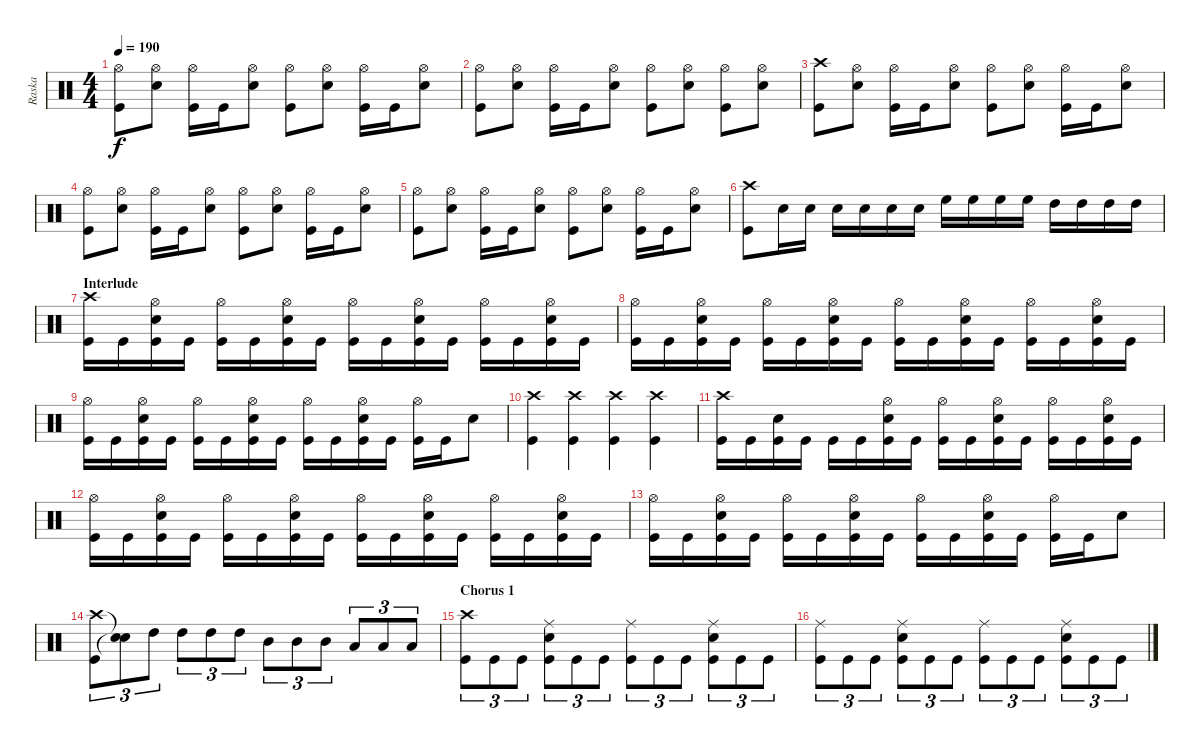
\track ("Raska" "Raska") {instrument percussion}
\staff {score}
\articulation defaults
\ts (4 4)
\tempo 190
\clef neutral
\ks c
("Hi-Hat (open)" "Kick (hit)").8{dy f} ("Hi-Hat (open)" "Electric Snare (hit)").8 ("Hi-Hat (open)" "Kick (hit)").16 "Kick (hit)".16 ("Hi-Hat (open)" "Electric Snare (hit)").8 ("Hi-Hat (open)" "Kick (hit)").8 ("Hi-Hat (open)" "Electric Snare (hit)").8 ("Hi-Hat (open)" "Kick (hit)").16 "Kick (hit)".16 ("Hi-Hat (open)" "Electric Snare (hit)").8 |
("Hi-Hat (open)" "Kick (hit)").8 ("Hi-Hat (open)" "Electric Snare (hit)").8 ("Hi-Hat (open)" "Kick (hit)").16 "Kick (hit)".16 ("Hi-Hat (open)" "Electric Snare (hit)").8 ("Hi-Hat (open)" "Kick (hit)").8 ("Hi-Hat (open)" "Electric Snare (hit)").8 ("Hi-Hat (open)" "Kick (hit)").8 ("Hi-Hat (open)" "Electric Snare (hit)").8 |
("Crash high (hit)" "Kick (hit)").8 ("Hi-Hat (open)" "Electric Snare (hit)").8 ("Hi-Hat (open)" "Kick (hit)").16 "Kick (hit)".16 ("Hi-Hat (open)" "Electric Snare (hit)").8 ("Hi-Hat (open)" "Kick (hit)").8 ("Hi-Hat (open)" "Electric Snare (hit)").8 ("Hi-Hat (open)" "Kick (hit)").16 "Kick (hit)".16 ("Hi-Hat (open)" "Electric Snare (hit)").8 |
("Hi-Hat (open)" "Kick (hit)").8 ("Hi-Hat (open)" "Electric Snare (hit)").8 ("Hi-Hat (open)" "Kick (hit)").16 "Kick (hit)".16 ("Hi-Hat (open)" "Electric Snare (hit)").8 ("Hi-Hat (open)" "Kick (hit)").8 ("Hi-Hat (open)" "Electric Snare (hit)").8 ("Hi-Hat (open)" "Kick (hit)").16 "Kick (hit)".16 ("Hi-Hat (open)" "Electric Snare (hit)").8 |
("Hi-Hat (open)" "Kick (hit)").8 ("Hi-Hat (open)" "Electric Snare (hit)").8 ("Hi-Hat (open)" "Kick (hit)").16 "Kick (hit)".16 ("Hi-Hat (open)" "Electric Snare (hit)").8 ("Hi-Hat (open)" "Kick (hit)").8 ("Hi-Hat (open)" "Electric Snare (hit)").8 ("Hi-Hat (open)" "Kick (hit)").16 "Kick (hit)".16 ("Hi-Hat (open)" "Electric Snare (hit)").8 |
("Crash high (hit)" "Kick (hit)").8 "Electric Snare (hit)".16 "Electric Snare (hit)".16 "Electric Snare (hit)".16 "Electric Snare (hit)".16 "Electric Snare (hit)".16 "Electric Snare (hit)".16 "High Floor Tom (hit)".16 "High Floor Tom (hit)".16 "High Floor Tom (hit)".16 "High Floor Tom (hit)".16 "High Tom (hit)".16 "High Tom (hit)".16 "High Tom (hit)".16 "High Tom (hit)".16 |
\section ("" "Interlude")
("Crash high (hit)" "Kick (hit)").16 "Kick (hit)".16 ("Hi-Hat (open)" "Electric Snare (hit)" "Kick (hit)").16 "Kick (hit)".16 ("Hi-Hat (open)" "Kick (hit)").16 "Kick (hit)".16 ("Hi-Hat (open)" "Electric Snare (hit)" "Kick (hit)").16 "Kick (hit)".16 ("Hi-Hat (open)" "Kick (hit)").16 "Kick (hit)".16 ("Hi-Hat (open)" "Electric Snare (hit)" "Kick (hit)").16 "Kick (hit)".16 ("Hi-Hat (open)" "Kick (hit)").16 "Kick (hit)".16 ("Hi-Hat (open)" "Electric Snare (hit)" "Kick (hit)").16 "Kick (hit)".16 |
("Hi-Hat (open)" "Kick (hit)").16 "Kick (hit)".16 ("Hi-Hat (open)" "Electric Snare (hit)" "Kick (hit)").16 "Kick (hit)".16 ("Hi-Hat (open)" "Kick (hit)").16 "Kick (hit)".16 ("Hi-Hat (open)" "Electric Snare (hit)" "Kick (hit)").16 "Kick (hit)".16 ("Hi-Hat (open)" "Kick (hit)").16 "Kick (hit)".16 ("Hi-Hat (open)" "Electric Snare (hit)" "Kick (hit)").16 "Kick (hit)".16 ("Hi-Hat (open)" "Kick (hit)").16 "Kick (hit)".16 ("Hi-Hat (open)" "Electric Snare (hit)" "Kick (hit)").16 "Kick (hit)".16 |
("Hi-Hat (open)" "Kick (hit)").16 "Kick (hit)".16 ("Hi-Hat (open)" "Electric Snare (hit)" "Kick (hit)").16 "Kick (hit)".16 ("Hi-Hat (open)" "Kick (hit)").16 "Kick (hit)".16 ("Hi-Hat (open)" "Electric Snare (hit)" "Kick (hit)").16 "Kick (hit)".16 ("Hi-Hat (open)" "Kick (hit)").16 "Kick (hit)".16 ("Hi-Hat (open)" "Electric Snare (hit)" "Kick (hit)").16 "Kick (hit)".16 ("Hi-Hat (open)" "Kick (hit)").16 "Kick (hit)".16 "Electric Snare (hit)".8 |
("Crash high (hit)" "Kick (hit)").4 ("Crash high (hit)" "Kick (hit)").4 ("Crash high (hit)" "Kick (hit)").4 ("Crash high (hit)" "Kick (hit)").4 |
("Crash high (hit)" "Kick (hit)").16 "Kick (hit)".16 ("Electric Snare (hit)" "Kick (hit)").16 "Kick (hit)".16 "Kick (hit)".16 "Kick (hit)".16 ("Hi-Hat (open)" "Electric Snare (hit)" "Kick (hit)").16 "Kick (hit)".16 ("Hi-Hat (open)" "Kick (hit)").16 "Kick (hit)".16 ("Hi-Hat (open)" "Electric Snare (hit)" "Kick (hit)").16 "Kick (hit)".16 ("Hi-Hat (open)" "Kick (hit)").16 "Kick (hit)".16 ("Hi-Hat (open)" "Electric Snare (hit)" "Kick (hit)").16 "Kick (hit)".16 |
("Hi-Hat (open)" "Kick (hit)").16 "Kick (hit)".16 ("Hi-Hat (open)" "Electric Snare (hit)" "Kick (hit)").16 "Kick (hit)".16 ("Hi-Hat (open)" "Kick (hit)").16 "Kick (hit)".16 ("Hi-Hat (open)" "Electric Snare (hit)" "Kick (hit)").16 "Kick (hit)".16 ("Hi-Hat (open)" "Kick (hit)").16 "Kick (hit)".16 ("Hi-Hat (open)" "Electric Snare (hit)" "Kick (hit)").16 "Kick (hit)".16 ("Hi-Hat (open)" "Kick (hit)").16 "Kick (hit)".16 ("Hi-Hat (open)" "Electric Snare (hit)" "Kick (hit)").16 "Kick (hit)".16 |
("Hi-Hat (open)" "Kick (hit)").16 "Kick (hit)".16 ("Hi-Hat (open)" "Electric Snare (hit)" "Kick (hit)").16 "Kick (hit)".16 ("Hi-Hat (open)" "Kick (hit)").16 "Kick (hit)".16 ("Hi-Hat (open)" "Electric Snare (hit)" "Kick (hit)").16 "Kick (hit)".16 ("Hi-Hat (open)" "Kick (hit)").16 "Kick (hit)".16 ("Hi-Hat (open)" "Electric Snare (hit)" "Kick (hit)").16 "Kick (hit)".16 ("Hi-Hat (open)" "Kick (hit)").16 "Kick (hit)".16 "Electric Snare (hit)".8 |
("Crash high (hit)" "Kick (hit)").8{tu (3 2)} ("Snare (hit)"{t} "Snare (hit)"{t}).8{tu (3 2)} "High Tom (hit)".8{tu (3 2)} "High Tom (hit)".8{tu (3 2)} "High Tom (hit)".8{tu (3 2)} "High Tom (hit)".8{tu (3 2)} "Mid Tom (hit)".8{tu (3 2)} "Mid Tom (hit)".8{tu (3 2)} "Mid Tom (hit)".8{tu (3 2)} "Low Tom (hit)".8{tu (3 2)} "Low Tom (hit)".8{tu (3 2)} "Low Tom (hit)".8{tu (3 2)} |
\section ("" "Chorus 1")
("Crash high (hit)" "Kick (hit)").8{tu (3 2)} "Kick (hit)".8{tu (3 2)} "Kick (hit)".8{tu (3 2)} ("Ride (middle)" "Electric Snare (hit)" "Kick (hit)").8{tu (3 2)} "Kick (hit)".8{tu (3 2)} "Kick (hit)".8{tu (3 2)} ("Ride (middle)" "Kick (hit)").8{tu (3 2)} "Kick (hit)".8{tu (3 2)} "Kick (hit)".8{tu (3 2)} ("Ride (middle)" "Electric Snare (hit)" "Kick (hit)").8{tu (3 2)} "Kick (hit)".8{tu (3 2)} "Kick (hit)".8{tu (3 2)} |
("Ride (middle)" "Kick (hit)").8{tu (3 2)} "Kick (hit)".8{tu (3 2)} "Kick (hit)".8{tu (3 2)} ("Ride (middle)" "Electric Snare (hit)" "Kick (hit)").8{tu (3 2)} "Kick (hit)".8{tu (3 2)} "Kick (hit)".8{tu (3 2)} ("Ride (middle)" "Kick (hit)").8{tu (3 2)} "Kick (hit)".8{tu (3 2)} "Kick (hit)".8{tu (3 2)} ("Ride (middle)" "Electric Snare (hit)" "Kick (hit)").8{tu (3 2)} "Kick (hit)".8{tu (3 2)} "Kick (hit)".8{tu (3 2)}
